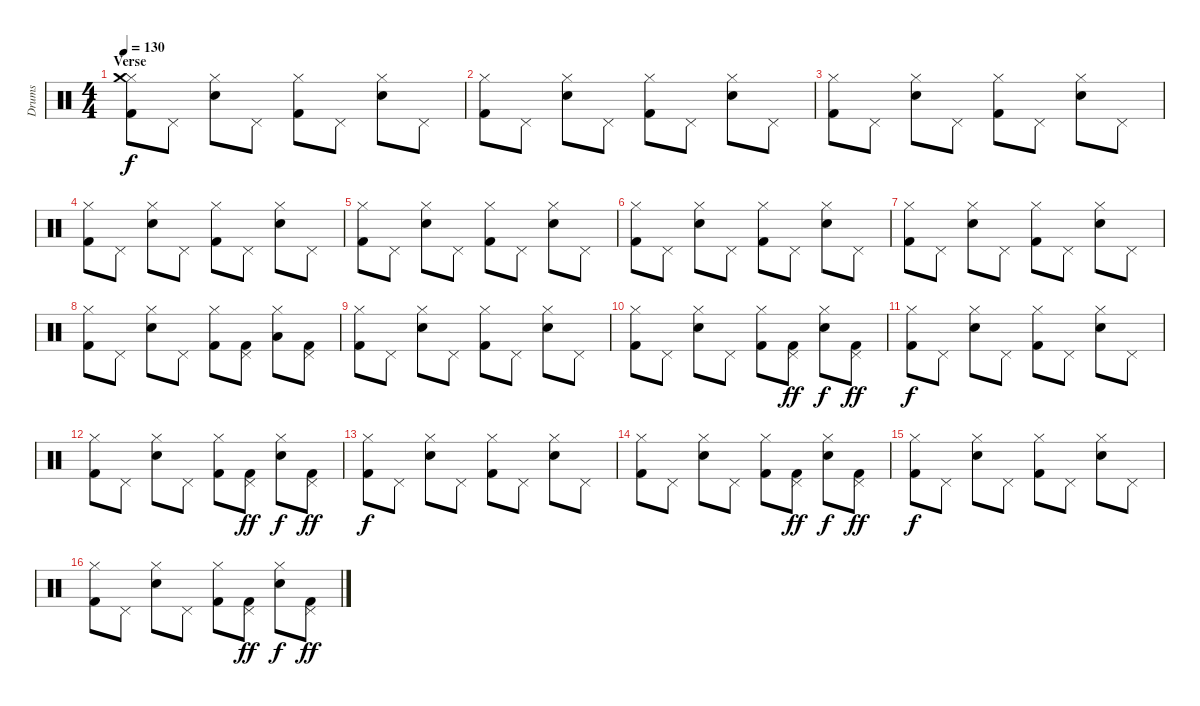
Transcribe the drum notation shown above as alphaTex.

\track ("Drums" "Drums") {instrument percussion}
\staff {score}
\articulation defaults
\ts (4 4)
\section ("" "Verse")
\tempo 130
\clef neutral
\ks c
("Kick (hit) 2" "Hi-Hat (closed)" "Crash medium (hit)").8{dy f} "Pedal Hi-Hat (hit)".8 ("Electric Snare (hit)" "Hi-Hat (closed)").8 "Pedal Hi-Hat (hit)".8 ("Kick (hit) 2" "Hi-Hat (closed)").8 "Pedal Hi-Hat (hit)".8 ("Electric Snare (hit)" "Hi-Hat (closed)").8 "Pedal Hi-Hat (hit)".8 |
("Kick (hit) 2" "Hi-Hat (closed)").8 "Pedal Hi-Hat (hit)".8 ("Electric Snare (hit)" "Hi-Hat (closed)").8 "Pedal Hi-Hat (hit)".8 ("Kick (hit) 2" "Hi-Hat (closed)").8 "Pedal Hi-Hat (hit)".8 ("Electric Snare (hit)" "Hi-Hat (closed)").8 "Pedal Hi-Hat (hit)".8 |
("Kick (hit) 2" "Hi-Hat (closed)").8 "Pedal Hi-Hat (hit)".8 ("Electric Snare (hit)" "Hi-Hat (closed)").8 "Pedal Hi-Hat (hit)".8 ("Kick (hit) 2" "Hi-Hat (closed)").8 "Pedal Hi-Hat (hit)".8 ("Electric Snare (hit)" "Hi-Hat (closed)").8 "Pedal Hi-Hat (hit)".8 |
("Kick (hit) 2" "Hi-Hat (closed)").8 "Pedal Hi-Hat (hit)".8 ("Electric Snare (hit)" "Hi-Hat (closed)").8 "Pedal Hi-Hat (hit)".8 ("Kick (hit) 2" "Hi-Hat (closed)").8 "Pedal Hi-Hat (hit)".8 ("Electric Snare (hit)" "Hi-Hat (closed)").8 "Pedal Hi-Hat (hit)".8 |
("Kick (hit) 2" "Hi-Hat (closed)").8 "Pedal Hi-Hat (hit)".8 ("Electric Snare (hit)" "Hi-Hat (closed)").8 "Pedal Hi-Hat (hit)".8 ("Kick (hit) 2" "Hi-Hat (closed)").8 "Pedal Hi-Hat (hit)".8 ("Electric Snare (hit)" "Hi-Hat (closed)").8 "Pedal Hi-Hat (hit)".8 |
("Kick (hit) 2" "Hi-Hat (closed)").8 "Pedal Hi-Hat (hit)".8 ("Electric Snare (hit)" "Hi-Hat (closed)").8 "Pedal Hi-Hat (hit)".8 ("Kick (hit) 2" "Hi-Hat (closed)").8 "Pedal Hi-Hat (hit)".8 ("Electric Snare (hit)" "Hi-Hat (closed)").8 "Pedal Hi-Hat (hit)".8 |
("Kick (hit) 2" "Hi-Hat (closed)").8 "Pedal Hi-Hat (hit)".8 ("Electric Snare (hit)" "Hi-Hat (closed)").8 "Pedal Hi-Hat (hit)".8 ("Kick (hit) 2" "Hi-Hat (closed)").8 "Pedal Hi-Hat (hit)".8 ("Electric Snare (hit)" "Hi-Hat (closed)").8 "Pedal Hi-Hat (hit)".8 |
("Kick (hit) 2" "Hi-Hat (closed)").8 "Pedal Hi-Hat (hit)".8 ("Electric Snare (hit)" "Hi-Hat (closed)").8 "Pedal Hi-Hat (hit)".8 ("Kick (hit) 2" "Hi-Hat (closed)").8 ("Kick (hit) 2" "Pedal Hi-Hat (hit)").8 ("Low Floor Tom (hit)" "Hi-Hat (closed)").8 ("Kick (hit) 2" "Pedal Hi-Hat (hit)").8 |
("Kick (hit) 2" "Hi-Hat (closed)").8 "Pedal Hi-Hat (hit)".8 ("Electric Snare (hit)" "Hi-Hat (closed)").8 "Pedal Hi-Hat (hit)".8 ("Kick (hit) 2" "Hi-Hat (closed)").8 "Pedal Hi-Hat (hit)".8 ("Electric Snare (hit)" "Hi-Hat (closed)").8 "Pedal Hi-Hat (hit)".8 |
("Kick (hit) 2" "Hi-Hat (closed)").8 "Pedal Hi-Hat (hit)".8 ("Electric Snare (hit)" "Hi-Hat (closed)").8 "Pedal Hi-Hat (hit)".8 ("Kick (hit) 2" "Hi-Hat (closed)").8 ("Kick (hit) 2" "Pedal Hi-Hat (hit)").8{dy ff} ("Electric Snare (hit)" "Hi-Hat (closed)").8{dy f} ("Kick (hit) 2" "Pedal Hi-Hat (hit)").8{dy ff} |
("Kick (hit) 2" "Hi-Hat (closed)").8{dy f} "Pedal Hi-Hat (hit)".8 ("Electric Snare (hit)" "Hi-Hat (closed)").8 "Pedal Hi-Hat (hit)".8 ("Kick (hit) 2" "Hi-Hat (closed)").8 "Pedal Hi-Hat (hit)".8 ("Electric Snare (hit)" "Hi-Hat (closed)").8 "Pedal Hi-Hat (hit)".8 |
("Kick (hit) 2" "Hi-Hat (closed)").8 "Pedal Hi-Hat (hit)".8 ("Electric Snare (hit)" "Hi-Hat (closed)").8 "Pedal Hi-Hat (hit)".8 ("Kick (hit) 2" "Hi-Hat (closed)").8 ("Kick (hit) 2" "Pedal Hi-Hat (hit)").8{dy ff} ("Electric Snare (hit)" "Hi-Hat (closed)").8{dy f} ("Kick (hit) 2" "Pedal Hi-Hat (hit)").8{dy ff} |
("Kick (hit) 2" "Hi-Hat (closed)").8{dy f} "Pedal Hi-Hat (hit)".8 ("Electric Snare (hit)" "Hi-Hat (closed)").8 "Pedal Hi-Hat (hit)".8 ("Kick (hit) 2" "Hi-Hat (closed)").8 "Pedal Hi-Hat (hit)".8 ("Electric Snare (hit)" "Hi-Hat (closed)").8 "Pedal Hi-Hat (hit)".8 |
("Kick (hit) 2" "Hi-Hat (closed)").8 "Pedal Hi-Hat (hit)".8 ("Electric Snare (hit)" "Hi-Hat (closed)").8 "Pedal Hi-Hat (hit)".8 ("Kick (hit) 2" "Hi-Hat (closed)").8 ("Kick (hit) 2" "Pedal Hi-Hat (hit)").8{dy ff} ("Electric Snare (hit)" "Hi-Hat (closed)").8{dy f} ("Kick (hit) 2" "Pedal Hi-Hat (hit)").8{dy ff} |
("Kick (hit) 2" "Hi-Hat (closed)").8{dy f} "Pedal Hi-Hat (hit)".8 ("Electric Snare (hit)" "Hi-Hat (closed)").8 "Pedal Hi-Hat (hit)".8 ("Kick (hit) 2" "Hi-Hat (closed)").8 "Pedal Hi-Hat (hit)".8 ("Electric Snare (hit)" "Hi-Hat (closed)").8 "Pedal Hi-Hat (hit)".8 |
("Kick (hit) 2" "Hi-Hat (closed)").8 "Pedal Hi-Hat (hit)".8 ("Electric Snare (hit)" "Hi-Hat (closed)").8 "Pedal Hi-Hat (hit)".8 ("Kick (hit) 2" "Hi-Hat (closed)").8 ("Kick (hit) 2" "Pedal Hi-Hat (hit)").8{dy ff} ("Electric Snare (hit)" "Hi-Hat (closed)").8{dy f} ("Kick (hit) 2" "Pedal Hi-Hat (hit)").8{dy ff}
